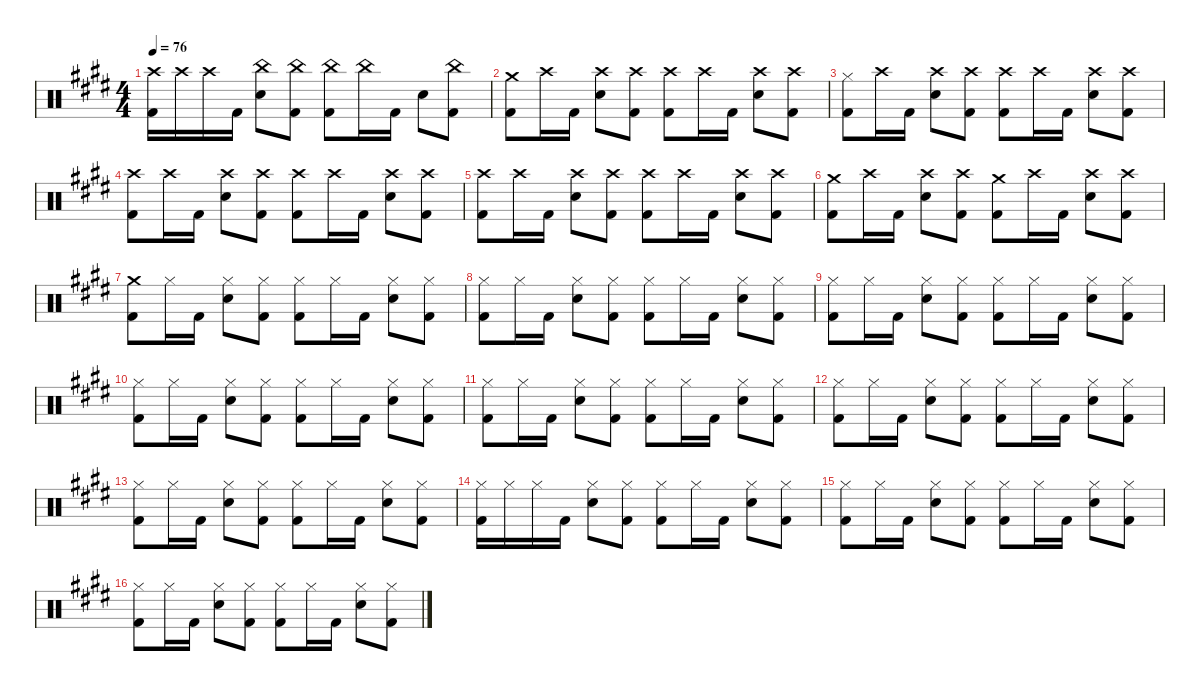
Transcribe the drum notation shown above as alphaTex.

\defaultSystemsLayout 4
\hideDynamics
\bracketExtendMode nobrackets
\singleTrackTrackNamePolicy hidden
\multiTrackTrackNamePolicy hidden
\firstSystemTrackNameMode fullname
\otherSystemsTrackNameOrientation horizontal
\track ("Drums" "drm.") {instrument percussion}
\staff {score}
\articulation defaults
\ts (4 4)
\tempo 76
\clef neutral
\ks e
("Crash high (hit)"{acc forcenatural} "Kick (hit) 2"{acc forcenatural}).16{dy f beam Down} "Crash high (hit)"{acc forcenatural}.16{beam Down} "Crash high (hit)"{acc forcenatural}.16{beam Down} "Kick (hit) 2"{acc forcenatural}.16{beam Down} ("China (hit)"{acc forcenatural} "Snare (hit) 2"{acc forcenatural}).8{dy mf beam Down} ("China (hit)"{acc forcenatural} "Kick (hit) 2"{acc forcenatural}).8{dy f beam Down} ("China (hit)"{acc forcenatural} "Kick (hit) 2"{acc forcenatural}).8{beam Down} "China (hit)"{acc forcenatural}.16{beam Down} "Kick (hit) 2"{acc forcenatural}.16{beam Down} "Snare (hit) 2"{acc forcenatural}.8{beam Down} ("China (hit)"{acc forcenatural} "Kick (hit) 2"{acc forcenatural}).8{beam Down} |
("Crash medium (hit)"{acc forcenatural} "Kick (hit) 2"{acc forcenatural}).8{beam Down} "Crash high (hit)"{acc forcenatural}.16{beam Down} "Kick (hit) 2"{acc forcenatural}.16{beam Down} ("Crash high (hit)"{acc forcenatural} "Snare (hit) 2"{acc forcenatural}).8{dy mf beam Down} ("Crash high (hit)"{acc forcenatural} "Kick (hit) 2"{acc forcenatural}).8{dy f beam Down} ("Crash high (hit)"{acc forcenatural} "Kick (hit) 2"{acc forcenatural}).8{beam Down} "Crash high (hit)"{acc forcenatural}.16{beam Down} "Kick (hit) 2"{acc forcenatural}.16{beam Down} ("Crash high (hit)"{acc forcenatural} "Snare (hit) 2"{acc forcenatural}).8{dy mf beam Down} ("Crash high (hit)"{acc forcenatural} "Kick (hit) 2"{acc forcenatural}).8{dy f beam Down} |
("Hi-Hat (closed)"{acc forcenatural} "Kick (hit) 2"{acc forcenatural}).8{beam Down} "Crash high (hit)"{acc forcenatural}.16{beam Down} "Kick (hit) 2"{acc forcenatural}.16{beam Down} ("Crash high (hit)"{acc forcenatural} "Snare (hit) 2"{acc forcenatural}).8{dy mf beam Down} ("Crash high (hit)"{acc forcenatural} "Kick (hit) 2"{acc forcenatural}).8{dy f beam Down} ("Crash high (hit)"{acc forcenatural} "Kick (hit) 2"{acc forcenatural}).8{beam Down} "Crash high (hit)"{acc forcenatural}.16{beam Down} "Kick (hit) 2"{acc forcenatural}.16{beam Down} ("Crash high (hit)"{acc forcenatural} "Snare (hit) 2"{acc forcenatural}).8{dy mf beam Down} ("Crash high (hit)"{acc forcenatural} "Kick (hit) 2"{acc forcenatural}).8{dy f beam Down} |
("Crash high (hit)"{acc forcenatural} "Kick (hit) 2"{acc forcenatural}).8{beam Down} "Crash high (hit)"{acc forcenatural}.16{beam Down} "Kick (hit) 2"{acc forcenatural}.16{beam Down} ("Crash high (hit)"{acc forcenatural} "Snare (hit) 2"{acc forcenatural}).8{dy mf beam Down} ("Crash high (hit)"{acc forcenatural} "Kick (hit) 2"{acc forcenatural}).8{dy f beam Down} ("Crash high (hit)"{acc forcenatural} "Kick (hit) 2"{acc forcenatural}).8{beam Down} "Crash high (hit)"{acc forcenatural}.16{beam Down} "Kick (hit) 2"{acc forcenatural}.16{beam Down} ("Crash high (hit)"{acc forcenatural} "Snare (hit) 2"{acc forcenatural}).8{dy mf beam Down} ("Crash high (hit)"{acc forcenatural} "Kick (hit) 2"{acc forcenatural}).8{dy f beam Down} |
("Crash high (hit)"{acc forcenatural} "Kick (hit) 2"{acc forcenatural}).8{beam Down} "Crash high (hit)"{acc forcenatural}.16{beam Down} "Kick (hit) 2"{acc forcenatural}.16{beam Down} ("Crash high (hit)"{acc forcenatural} "Snare (hit) 2"{acc forcenatural}).8{dy mf beam Down} ("Crash high (hit)"{acc forcenatural} "Kick (hit) 2"{acc forcenatural}).8{dy f beam Down} ("Crash high (hit)"{acc forcenatural} "Kick (hit) 2"{acc forcenatural}).8{beam Down} "Crash high (hit)"{acc forcenatural}.16{beam Down} "Kick (hit) 2"{acc forcenatural}.16{beam Down} ("Crash high (hit)"{acc forcenatural} "Snare (hit) 2"{acc forcenatural}).8{dy mf beam Down} ("Crash high (hit)"{acc forcenatural} "Kick (hit) 2"{acc forcenatural}).8{dy f beam Down} |
("Crash medium (hit)"{acc forcenatural} "Kick (hit) 2"{acc forcenatural}).8{beam Down} "Crash high (hit)"{acc forcenatural}.16{beam Down} "Kick (hit) 2"{acc forcenatural}.16{beam Down} ("Crash high (hit)"{acc forcenatural} "Snare (hit) 2"{acc forcenatural}).8{dy mf beam Down} ("Crash high (hit)"{acc forcenatural} "Kick (hit) 2"{acc forcenatural}).8{dy f beam Down} ("Crash medium (hit)"{acc forcenatural} "Kick (hit) 2"{acc forcenatural}).8{beam Down} "Crash high (hit)"{acc forcenatural}.16{beam Down} "Kick (hit) 2"{acc forcenatural}.16{beam Down} ("Crash high (hit)"{acc forcenatural} "Snare (hit) 2"{acc forcenatural}).8{dy mf beam Down} ("Crash high (hit)"{acc forcenatural} "Kick (hit) 2"{acc forcenatural}).8{dy f beam Down} |
("Crash medium (hit)"{acc forcenatural} "Kick (hit) 2"{acc forcenatural}).8{beam Down} "Hi-Hat (closed)"{acc forcenatural}.16{beam Down} "Kick (hit) 2"{acc forcenatural}.16{beam Down} ("Hi-Hat (closed)"{acc forcenatural} "Snare (hit) 2"{acc forcenatural}).8{dy mf beam Down} ("Hi-Hat (closed)"{acc forcenatural} "Kick (hit) 2"{acc forcenatural}).8{dy f beam Down} ("Hi-Hat (closed)"{acc forcenatural} "Kick (hit) 2"{acc forcenatural}).8{beam Down} "Hi-Hat (closed)"{acc forcenatural}.16{beam Down} "Kick (hit) 2"{acc forcenatural}.16{beam Down} ("Hi-Hat (closed)"{acc forcenatural} "Snare (hit) 2"{acc forcenatural}).8{dy mf beam Down} ("Hi-Hat (closed)"{acc forcenatural} "Kick (hit) 2"{acc forcenatural}).8{dy f beam Down} |
("Hi-Hat (closed)"{acc forcenatural} "Kick (hit) 2"{acc forcenatural}).8{beam Down} "Hi-Hat (closed)"{acc forcenatural}.16{beam Down} "Kick (hit) 2"{acc forcenatural}.16{beam Down} ("Hi-Hat (closed)"{acc forcenatural} "Snare (hit) 2"{acc forcenatural}).8{dy mf beam Down} ("Hi-Hat (closed)"{acc forcenatural} "Kick (hit) 2"{acc forcenatural}).8{dy f beam Down} ("Hi-Hat (closed)"{acc forcenatural} "Kick (hit) 2"{acc forcenatural}).8{beam Down} "Hi-Hat (closed)"{acc forcenatural}.16{beam Down} "Kick (hit) 2"{acc forcenatural}.16{beam Down} ("Hi-Hat (closed)"{acc forcenatural} "Snare (hit) 2"{acc forcenatural}).8{dy mf beam Down} ("Hi-Hat (closed)"{acc forcenatural} "Kick (hit) 2"{acc forcenatural}).8{dy f beam Down} |
("Hi-Hat (closed)"{acc forcenatural} "Kick (hit) 2"{acc forcenatural}).8{beam Down} "Hi-Hat (closed)"{acc forcenatural}.16{beam Down} "Kick (hit) 2"{acc forcenatural}.16{beam Down} ("Hi-Hat (closed)"{acc forcenatural} "Snare (hit) 2"{acc forcenatural}).8{dy mf beam Down} ("Hi-Hat (closed)"{acc forcenatural} "Kick (hit) 2"{acc forcenatural}).8{dy f beam Down} ("Hi-Hat (closed)"{acc forcenatural} "Kick (hit) 2"{acc forcenatural}).8{beam Down} "Hi-Hat (closed)"{acc forcenatural}.16{beam Down} "Kick (hit) 2"{acc forcenatural}.16{beam Down} ("Hi-Hat (closed)"{acc forcenatural} "Snare (hit) 2"{acc forcenatural}).8{dy mf beam Down} ("Hi-Hat (closed)"{acc forcenatural} "Kick (hit) 2"{acc forcenatural}).8{dy f beam Down} |
("Hi-Hat (closed)"{acc forcenatural} "Kick (hit) 2"{acc forcenatural}).8{beam Down} "Hi-Hat (closed)"{acc forcenatural}.16{beam Down} "Kick (hit) 2"{acc forcenatural}.16{beam Down} ("Hi-Hat (closed)"{acc forcenatural} "Snare (hit) 2"{acc forcenatural}).8{dy mf beam Down} ("Hi-Hat (closed)"{acc forcenatural} "Kick (hit) 2"{acc forcenatural}).8{dy f beam Down} ("Hi-Hat (closed)"{acc forcenatural} "Kick (hit) 2"{acc forcenatural}).8{beam Down} "Hi-Hat (closed)"{acc forcenatural}.16{beam Down} "Kick (hit) 2"{acc forcenatural}.16{beam Down} ("Hi-Hat (closed)"{acc forcenatural} "Snare (hit) 2"{acc forcenatural}).8{dy mf beam Down} ("Hi-Hat (closed)"{acc forcenatural} "Kick (hit) 2"{acc forcenatural}).8{dy f beam Down} |
("Hi-Hat (closed)"{acc forcenatural} "Kick (hit) 2"{acc forcenatural}).8{beam Down} "Hi-Hat (closed)"{acc forcenatural}.16{beam Down} "Kick (hit) 2"{acc forcenatural}.16{beam Down} ("Hi-Hat (closed)"{acc forcenatural} "Snare (hit) 2"{acc forcenatural}).8{dy mf beam Down} ("Hi-Hat (closed)"{acc forcenatural} "Kick (hit) 2"{acc forcenatural}).8{dy f beam Down} ("Hi-Hat (closed)"{acc forcenatural} "Kick (hit) 2"{acc forcenatural}).8{beam Down} "Hi-Hat (closed)"{acc forcenatural}.16{beam Down} "Kick (hit) 2"{acc forcenatural}.16{beam Down} ("Hi-Hat (closed)"{acc forcenatural} "Snare (hit) 2"{acc forcenatural}).8{dy mf beam Down} ("Hi-Hat (closed)"{acc forcenatural} "Kick (hit) 2"{acc forcenatural}).8{dy f beam Down} |
("Hi-Hat (closed)"{acc forcenatural} "Kick (hit) 2"{acc forcenatural}).8{beam Down} "Hi-Hat (closed)"{acc forcenatural}.16{beam Down} "Kick (hit) 2"{acc forcenatural}.16{beam Down} ("Hi-Hat (closed)"{acc forcenatural} "Snare (hit) 2"{acc forcenatural}).8{dy mf beam Down} ("Hi-Hat (closed)"{acc forcenatural} "Kick (hit) 2"{acc forcenatural}).8{dy f beam Down} ("Hi-Hat (closed)"{acc forcenatural} "Kick (hit) 2"{acc forcenatural}).8{beam Down} "Hi-Hat (closed)"{acc forcenatural}.16{beam Down} "Kick (hit) 2"{acc forcenatural}.16{beam Down} ("Hi-Hat (closed)"{acc forcenatural} "Snare (hit) 2"{acc forcenatural}).8{dy mf beam Down} ("Hi-Hat (closed)"{acc forcenatural} "Kick (hit) 2"{acc forcenatural}).8{dy f beam Down} |
("Hi-Hat (closed)"{acc forcenatural} "Kick (hit) 2"{acc forcenatural}).8{beam Down} "Hi-Hat (closed)"{acc forcenatural}.16{beam Down} "Kick (hit) 2"{acc forcenatural}.16{beam Down} ("Hi-Hat (closed)"{acc forcenatural} "Snare (hit) 2"{acc forcenatural}).8{dy mf beam Down} ("Hi-Hat (closed)"{acc forcenatural} "Kick (hit) 2"{acc forcenatural}).8{dy f beam Down} ("Hi-Hat (closed)"{acc forcenatural} "Kick (hit) 2"{acc forcenatural}).8{beam Down} "Hi-Hat (closed)"{acc forcenatural}.16{beam Down} "Kick (hit) 2"{acc forcenatural}.16{beam Down} ("Hi-Hat (closed)"{acc forcenatural} "Snare (hit) 2"{acc forcenatural}).8{dy mf beam Down} ("Hi-Hat (closed)"{acc forcenatural} "Kick (hit) 2"{acc forcenatural}).8{dy f beam Down} |
("Hi-Hat (closed)"{acc forcenatural} "Kick (hit) 2"{acc forcenatural}).16{beam Down} "Hi-Hat (closed)"{acc forcenatural}.16{dy mf beam Down} "Hi-Hat (closed)"{acc forcenatural}.16{dy f beam Down} "Kick (hit) 2"{acc forcenatural}.16{beam Down} ("Hi-Hat (closed)"{acc forcenatural} "Snare (hit) 2"{acc forcenatural}).8{dy mf beam Down} ("Hi-Hat (closed)"{acc forcenatural} "Kick (hit) 2"{acc forcenatural}).8{dy f beam Down} ("Hi-Hat (closed)"{acc forcenatural} "Kick (hit) 2"{acc forcenatural}).8{beam Down} "Hi-Hat (closed)"{acc forcenatural}.16{beam Down} "Kick (hit) 2"{acc forcenatural}.16{beam Down} ("Hi-Hat (closed)"{acc forcenatural} "Snare (hit) 2"{acc forcenatural}).8{dy mf beam Down} ("Hi-Hat (closed)"{acc forcenatural} "Kick (hit) 2"{acc forcenatural}).8{dy f beam Down} |
("Hi-Hat (closed)"{acc forcenatural} "Kick (hit) 2"{acc forcenatural}).8{beam Down} "Hi-Hat (closed)"{acc forcenatural}.16{beam Down} "Kick (hit) 2"{acc forcenatural}.16{beam Down} ("Hi-Hat (closed)"{acc forcenatural} "Snare (hit) 2"{acc forcenatural}).8{dy mf beam Down} ("Hi-Hat (closed)"{acc forcenatural} "Kick (hit) 2"{acc forcenatural}).8{dy f beam Down} ("Hi-Hat (closed)"{acc forcenatural} "Kick (hit) 2"{acc forcenatural}).8{beam Down} "Hi-Hat (closed)"{acc forcenatural}.16{beam Down} "Kick (hit) 2"{acc forcenatural}.16{beam Down} ("Hi-Hat (closed)"{acc forcenatural} "Snare (hit) 2"{acc forcenatural}).8{dy mf beam Down} ("Hi-Hat (closed)"{acc forcenatural} "Kick (hit) 2"{acc forcenatural}).8{dy f beam Down} |
("Hi-Hat (closed)"{acc forcenatural} "Kick (hit) 2"{acc forcenatural}).8{beam Down} "Hi-Hat (closed)"{acc forcenatural}.16{beam Down} "Kick (hit) 2"{acc forcenatural}.16{beam Down} ("Hi-Hat (closed)"{acc forcenatural} "Snare (hit) 2"{acc forcenatural}).8{dy mf beam Down} ("Hi-Hat (closed)"{acc forcenatural} "Kick (hit) 2"{acc forcenatural}).8{dy f beam Down} ("Hi-Hat (closed)"{acc forcenatural} "Kick (hit) 2"{acc forcenatural}).8{beam Down} "Hi-Hat (closed)"{acc forcenatural}.16{beam Down} "Kick (hit) 2"{acc forcenatural}.16{beam Down} ("Hi-Hat (closed)"{acc forcenatural} "Snare (hit) 2"{acc forcenatural}).8{dy mf beam Down} ("Hi-Hat (closed)"{acc forcenatural} "Kick (hit) 2"{acc forcenatural}).8{dy f beam Down}
